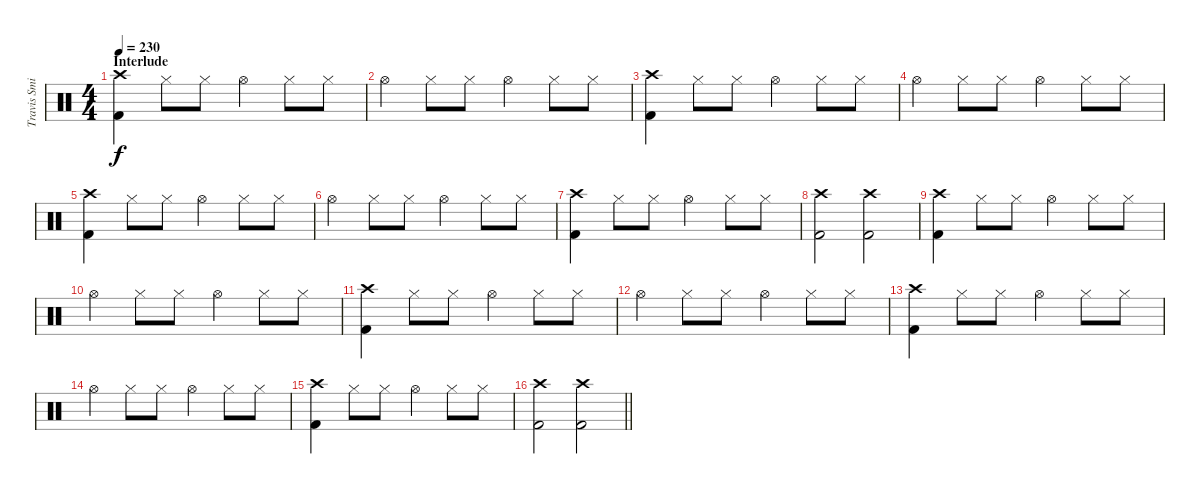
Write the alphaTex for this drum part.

\track ("Travis Smith" "Travis Smi") {instrument percussion}
\staff {score}
\articulation defaults
\ts (4 4)
\section ("" "Interlude")
\tempo 230
\clef neutral
\ks c
("Kick (hit) 2" "Crash high (hit)").4{dy f} "Hi-Hat (closed)".8 "Hi-Hat (closed)".8 "Hi-Hat (open)".4 "Hi-Hat (closed)".8 "Hi-Hat (closed)".8 |
"Hi-Hat (open)".4 "Hi-Hat (closed)".8 "Hi-Hat (closed)".8 "Hi-Hat (open)".4 "Hi-Hat (closed)".8 "Hi-Hat (closed)".8 |
("Kick (hit) 2" "Crash high (hit)").4 "Hi-Hat (closed)".8 "Hi-Hat (closed)".8 "Hi-Hat (open)".4 "Hi-Hat (closed)".8 "Hi-Hat (closed)".8 |
"Hi-Hat (open)".4 "Hi-Hat (closed)".8 "Hi-Hat (closed)".8 "Hi-Hat (open)".4 "Hi-Hat (closed)".8 "Hi-Hat (closed)".8 |
("Kick (hit) 2" "Crash high (hit)").4 "Hi-Hat (closed)".8 "Hi-Hat (closed)".8 "Hi-Hat (open)".4 "Hi-Hat (closed)".8 "Hi-Hat (closed)".8 |
"Hi-Hat (open)".4 "Hi-Hat (closed)".8 "Hi-Hat (closed)".8 "Hi-Hat (open)".4 "Hi-Hat (closed)".8 "Hi-Hat (closed)".8 |
("Kick (hit) 2" "Crash high (hit)").4 "Hi-Hat (closed)".8 "Hi-Hat (closed)".8 "Hi-Hat (open)".4 "Hi-Hat (closed)".8 "Hi-Hat (closed)".8 |
("Kick (hit) 2" "Crash high (hit)").2 ("Kick (hit) 2" "Crash high (hit)").2 |
("Kick (hit) 2" "Crash high (hit)").4 "Hi-Hat (closed)".8 "Hi-Hat (closed)".8 "Hi-Hat (open)".4 "Hi-Hat (closed)".8 "Hi-Hat (closed)".8 |
"Hi-Hat (open)".4 "Hi-Hat (closed)".8 "Hi-Hat (closed)".8 "Hi-Hat (open)".4 "Hi-Hat (closed)".8 "Hi-Hat (closed)".8 |
("Kick (hit) 2" "Crash high (hit)").4 "Hi-Hat (closed)".8 "Hi-Hat (closed)".8 "Hi-Hat (open)".4 "Hi-Hat (closed)".8 "Hi-Hat (closed)".8 |
"Hi-Hat (open)".4 "Hi-Hat (closed)".8 "Hi-Hat (closed)".8 "Hi-Hat (open)".4 "Hi-Hat (closed)".8 "Hi-Hat (closed)".8 |
("Kick (hit) 2" "Crash high (hit)").4 "Hi-Hat (closed)".8 "Hi-Hat (closed)".8 "Hi-Hat (open)".4 "Hi-Hat (closed)".8 "Hi-Hat (closed)".8 |
"Hi-Hat (open)".4 "Hi-Hat (closed)".8 "Hi-Hat (closed)".8 "Hi-Hat (open)".4 "Hi-Hat (closed)".8 "Hi-Hat (closed)".8 |
("Kick (hit) 2" "Crash high (hit)").4 "Hi-Hat (closed)".8 "Hi-Hat (closed)".8 "Hi-Hat (open)".4 "Hi-Hat (closed)".8 "Hi-Hat (closed)".8 |
\barLineRight lightlight
("Kick (hit) 2" "Crash high (hit)").2 ("Kick (hit) 2" "Crash high (hit)").2
